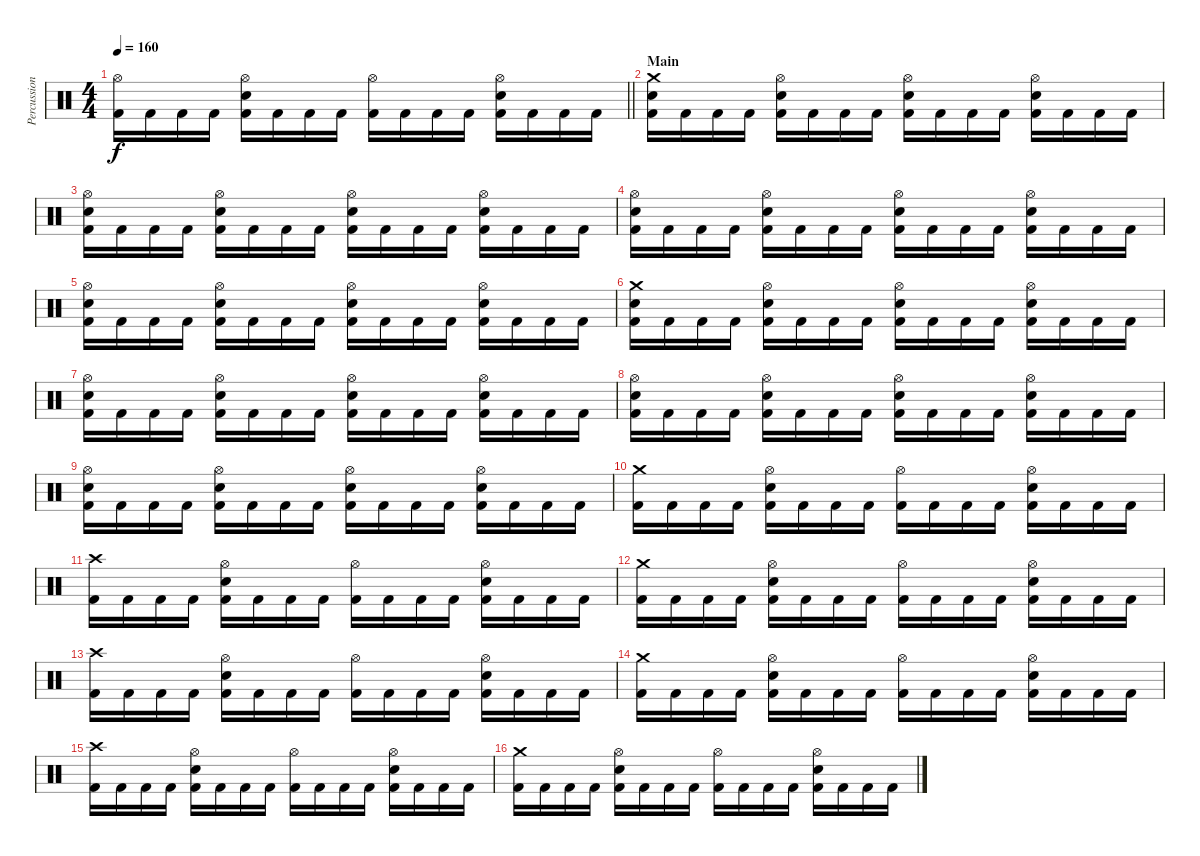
\track ("Percussion" "Percussion") {instrument percussion}
\staff {score}
\articulation defaults
\ts (4 4)
\tempo 160
\clef neutral
\barLineRight lightlight
\ks c
("Hi-Hat (open)" "Kick (hit) 2").16{dy f} "Kick (hit) 2".16 "Kick (hit) 2".16 "Kick (hit) 2".16 ("Hi-Hat (open)" "Electric Snare (hit)" "Kick (hit) 2").16 "Kick (hit) 2".16 "Kick (hit) 2".16 "Kick (hit) 2".16 ("Hi-Hat (open)" "Kick (hit) 2").16 "Kick (hit) 2".16 "Kick (hit) 2".16 "Kick (hit) 2".16 ("Hi-Hat (open)" "Electric Snare (hit)" "Kick (hit) 2").16 "Kick (hit) 2".16 "Kick (hit) 2".16 "Kick (hit) 2".16 |
\section ("" "Main")
("Crash medium (hit)" "Electric Snare (hit)" "Kick (hit) 2").16 "Kick (hit) 2".16 "Kick (hit) 2".16 "Kick (hit) 2".16 ("Hi-Hat (open)" "Electric Snare (hit)" "Kick (hit) 2").16 "Kick (hit) 2".16 "Kick (hit) 2".16 "Kick (hit) 2".16 ("Hi-Hat (open)" "Electric Snare (hit)" "Kick (hit) 2").16 "Kick (hit) 2".16 "Kick (hit) 2".16 "Kick (hit) 2".16 ("Hi-Hat (open)" "Electric Snare (hit)" "Kick (hit) 2").16 "Kick (hit) 2".16 "Kick (hit) 2".16 "Kick (hit) 2".16 |
("Hi-Hat (open)" "Electric Snare (hit)" "Kick (hit) 2").16 "Kick (hit) 2".16 "Kick (hit) 2".16 "Kick (hit) 2".16 ("Hi-Hat (open)" "Electric Snare (hit)" "Kick (hit) 2").16 "Kick (hit) 2".16 "Kick (hit) 2".16 "Kick (hit) 2".16 ("Hi-Hat (open)" "Electric Snare (hit)" "Kick (hit) 2").16 "Kick (hit) 2".16 "Kick (hit) 2".16 "Kick (hit) 2".16 ("Hi-Hat (open)" "Electric Snare (hit)" "Kick (hit) 2").16 "Kick (hit) 2".16 "Kick (hit) 2".16 "Kick (hit) 2".16 |
("Hi-Hat (open)" "Electric Snare (hit)" "Kick (hit) 2").16 "Kick (hit) 2".16 "Kick (hit) 2".16 "Kick (hit) 2".16 ("Hi-Hat (open)" "Electric Snare (hit)" "Kick (hit) 2").16 "Kick (hit) 2".16 "Kick (hit) 2".16 "Kick (hit) 2".16 ("Hi-Hat (open)" "Electric Snare (hit)" "Kick (hit) 2").16 "Kick (hit) 2".16 "Kick (hit) 2".16 "Kick (hit) 2".16 ("Hi-Hat (open)" "Electric Snare (hit)" "Kick (hit) 2").16 "Kick (hit) 2".16 "Kick (hit) 2".16 "Kick (hit) 2".16 |
("Hi-Hat (open)" "Electric Snare (hit)" "Kick (hit) 2").16 "Kick (hit) 2".16 "Kick (hit) 2".16 "Kick (hit) 2".16 ("Hi-Hat (open)" "Electric Snare (hit)" "Kick (hit) 2").16 "Kick (hit) 2".16 "Kick (hit) 2".16 "Kick (hit) 2".16 ("Hi-Hat (open)" "Electric Snare (hit)" "Kick (hit) 2").16 "Kick (hit) 2".16 "Kick (hit) 2".16 "Kick (hit) 2".16 ("Hi-Hat (open)" "Electric Snare (hit)" "Kick (hit) 2").16 "Kick (hit) 2".16 "Kick (hit) 2".16 "Kick (hit) 2".16 |
("Crash medium (hit)" "Electric Snare (hit)" "Kick (hit) 2").16 "Kick (hit) 2".16 "Kick (hit) 2".16 "Kick (hit) 2".16 ("Hi-Hat (open)" "Electric Snare (hit)" "Kick (hit) 2").16 "Kick (hit) 2".16 "Kick (hit) 2".16 "Kick (hit) 2".16 ("Hi-Hat (open)" "Electric Snare (hit)" "Kick (hit) 2").16 "Kick (hit) 2".16 "Kick (hit) 2".16 "Kick (hit) 2".16 ("Hi-Hat (open)" "Electric Snare (hit)" "Kick (hit) 2").16 "Kick (hit) 2".16 "Kick (hit) 2".16 "Kick (hit) 2".16 |
("Hi-Hat (open)" "Electric Snare (hit)" "Kick (hit) 2").16 "Kick (hit) 2".16 "Kick (hit) 2".16 "Kick (hit) 2".16 ("Hi-Hat (open)" "Electric Snare (hit)" "Kick (hit) 2").16 "Kick (hit) 2".16 "Kick (hit) 2".16 "Kick (hit) 2".16 ("Hi-Hat (open)" "Electric Snare (hit)" "Kick (hit) 2").16 "Kick (hit) 2".16 "Kick (hit) 2".16 "Kick (hit) 2".16 ("Hi-Hat (open)" "Electric Snare (hit)" "Kick (hit) 2").16 "Kick (hit) 2".16 "Kick (hit) 2".16 "Kick (hit) 2".16 |
("Hi-Hat (open)" "Electric Snare (hit)" "Kick (hit) 2").16 "Kick (hit) 2".16 "Kick (hit) 2".16 "Kick (hit) 2".16 ("Hi-Hat (open)" "Electric Snare (hit)" "Kick (hit) 2").16 "Kick (hit) 2".16 "Kick (hit) 2".16 "Kick (hit) 2".16 ("Hi-Hat (open)" "Electric Snare (hit)" "Kick (hit) 2").16 "Kick (hit) 2".16 "Kick (hit) 2".16 "Kick (hit) 2".16 ("Hi-Hat (open)" "Electric Snare (hit)" "Kick (hit) 2").16 "Kick (hit) 2".16 "Kick (hit) 2".16 "Kick (hit) 2".16 |
("Hi-Hat (open)" "Electric Snare (hit)" "Kick (hit) 2").16 "Kick (hit) 2".16 "Kick (hit) 2".16 "Kick (hit) 2".16 ("Hi-Hat (open)" "Electric Snare (hit)" "Kick (hit) 2").16 "Kick (hit) 2".16 "Kick (hit) 2".16 "Kick (hit) 2".16 ("Hi-Hat (open)" "Electric Snare (hit)" "Kick (hit) 2").16 "Kick (hit) 2".16 "Kick (hit) 2".16 "Kick (hit) 2".16 ("Hi-Hat (open)" "Electric Snare (hit)" "Kick (hit) 2").16 "Kick (hit) 2".16 "Kick (hit) 2".16 "Kick (hit) 2".16 |
("Crash medium (hit)" "Kick (hit) 2").16 "Kick (hit) 2".16 "Kick (hit) 2".16 "Kick (hit) 2".16 ("Hi-Hat (open)" "Electric Snare (hit)" "Kick (hit) 2").16 "Kick (hit) 2".16 "Kick (hit) 2".16 "Kick (hit) 2".16 ("Hi-Hat (open)" "Kick (hit) 2").16 "Kick (hit) 2".16 "Kick (hit) 2".16 "Kick (hit) 2".16 ("Hi-Hat (open)" "Electric Snare (hit)" "Kick (hit) 2").16 "Kick (hit) 2".16 "Kick (hit) 2".16 "Kick (hit) 2".16 |
("Crash high (hit)" "Kick (hit) 2").16 "Kick (hit) 2".16 "Kick (hit) 2".16 "Kick (hit) 2".16 ("Hi-Hat (open)" "Electric Snare (hit)" "Kick (hit) 2").16 "Kick (hit) 2".16 "Kick (hit) 2".16 "Kick (hit) 2".16 ("Hi-Hat (open)" "Kick (hit) 2").16 "Kick (hit) 2".16 "Kick (hit) 2".16 "Kick (hit) 2".16 ("Hi-Hat (open)" "Electric Snare (hit)" "Kick (hit) 2").16 "Kick (hit) 2".16 "Kick (hit) 2".16 "Kick (hit) 2".16 |
("Crash medium (hit)" "Kick (hit) 2").16 "Kick (hit) 2".16 "Kick (hit) 2".16 "Kick (hit) 2".16 ("Hi-Hat (open)" "Electric Snare (hit)" "Kick (hit) 2").16 "Kick (hit) 2".16 "Kick (hit) 2".16 "Kick (hit) 2".16 ("Hi-Hat (open)" "Kick (hit) 2").16 "Kick (hit) 2".16 "Kick (hit) 2".16 "Kick (hit) 2".16 ("Hi-Hat (open)" "Electric Snare (hit)" "Kick (hit) 2").16 "Kick (hit) 2".16 "Kick (hit) 2".16 "Kick (hit) 2".16 |
("Crash high (hit)" "Kick (hit) 2").16 "Kick (hit) 2".16 "Kick (hit) 2".16 "Kick (hit) 2".16 ("Hi-Hat (open)" "Electric Snare (hit)" "Kick (hit) 2").16 "Kick (hit) 2".16 "Kick (hit) 2".16 "Kick (hit) 2".16 ("Hi-Hat (open)" "Kick (hit) 2").16 "Kick (hit) 2".16 "Kick (hit) 2".16 "Kick (hit) 2".16 ("Hi-Hat (open)" "Electric Snare (hit)" "Kick (hit) 2").16 "Kick (hit) 2".16 "Kick (hit) 2".16 "Kick (hit) 2".16 |
("Crash medium (hit)" "Kick (hit) 2").16 "Kick (hit) 2".16 "Kick (hit) 2".16 "Kick (hit) 2".16 ("Hi-Hat (open)" "Electric Snare (hit)" "Kick (hit) 2").16 "Kick (hit) 2".16 "Kick (hit) 2".16 "Kick (hit) 2".16 ("Hi-Hat (open)" "Kick (hit) 2").16 "Kick (hit) 2".16 "Kick (hit) 2".16 "Kick (hit) 2".16 ("Hi-Hat (open)" "Electric Snare (hit)" "Kick (hit) 2").16 "Kick (hit) 2".16 "Kick (hit) 2".16 "Kick (hit) 2".16 |
("Crash high (hit)" "Kick (hit) 2").16 "Kick (hit) 2".16 "Kick (hit) 2".16 "Kick (hit) 2".16 ("Hi-Hat (open)" "Electric Snare (hit)" "Kick (hit) 2").16 "Kick (hit) 2".16 "Kick (hit) 2".16 "Kick (hit) 2".16 ("Hi-Hat (open)" "Kick (hit) 2").16 "Kick (hit) 2".16 "Kick (hit) 2".16 "Kick (hit) 2".16 ("Hi-Hat (open)" "Electric Snare (hit)" "Kick (hit) 2").16 "Kick (hit) 2".16 "Kick (hit) 2".16 "Kick (hit) 2".16 |
("Crash medium (hit)" "Kick (hit) 2").16 "Kick (hit) 2".16 "Kick (hit) 2".16 "Kick (hit) 2".16 ("Hi-Hat (open)" "Electric Snare (hit)" "Kick (hit) 2").16 "Kick (hit) 2".16 "Kick (hit) 2".16 "Kick (hit) 2".16 ("Hi-Hat (open)" "Kick (hit) 2").16 "Kick (hit) 2".16 "Kick (hit) 2".16 "Kick (hit) 2".16 ("Hi-Hat (open)" "Electric Snare (hit)" "Kick (hit) 2").16 "Kick (hit) 2".16 "Kick (hit) 2".16 "Kick (hit) 2".16
